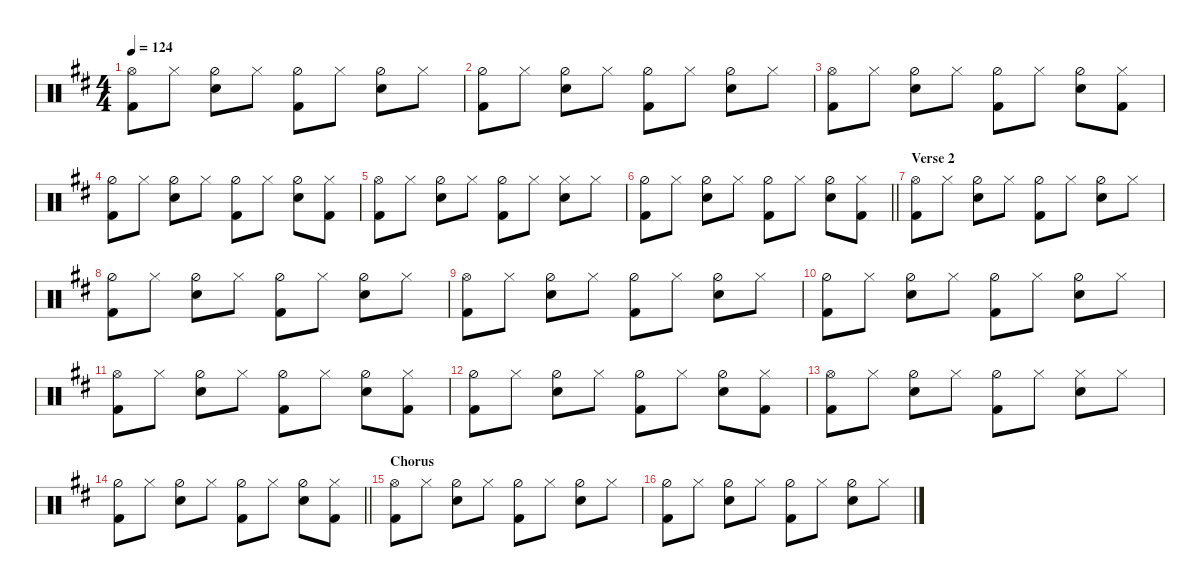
\hideDynamics
\bracketExtendMode nobrackets
\singleTrackTrackNamePolicy hidden
\multiTrackTrackNamePolicy hidden
\otherSystemsTrackNameOrientation horizontal
\track ("Drumkit" "Drums") {instrument percussion}
\staff {score}
\articulation defaults
\ts (4 4)
\tempo 124
\clef neutral
\ks bminor
("Kick (hit) 2"{acc forcenatural} "Hi-Hat (open)"{acc forcenatural}).8{dy f beam Down} "Hi-Hat (closed)"{acc forcenatural}.8{beam Down} ("Hi-Hat (half)"{acc forcenatural} "Snare (hit) 2"{acc forcenatural}).8{beam Down} "Hi-Hat (closed)"{acc forcenatural}.8{beam Down} ("Hi-Hat (half)"{acc forcenatural} "Kick (hit) 2"{acc forcenatural}).8{beam Down} "Hi-Hat (closed)"{acc forcenatural}.8{beam Down} ("Hi-Hat (half)"{acc forcenatural} "Snare (hit) 2"{acc forcenatural}).8{beam Down} "Hi-Hat (closed)"{acc forcenatural}.8{beam Down} |
("Kick (hit) 2"{acc forcenatural} "Hi-Hat (half)"{acc forcenatural}).8{beam Down} "Hi-Hat (closed)"{acc forcenatural}.8{beam Down} ("Hi-Hat (half)"{acc forcenatural} "Snare (hit) 2"{acc forcenatural}).8{beam Down} "Hi-Hat (closed)"{acc forcenatural}.8{beam Down} ("Hi-Hat (half)"{acc forcenatural} "Kick (hit) 2"{acc forcenatural}).8{beam Down} "Hi-Hat (closed)"{acc forcenatural}.8{beam Down} ("Hi-Hat (half)"{acc forcenatural} "Snare (hit) 2"{acc forcenatural}).8{beam Down} "Hi-Hat (closed)"{acc forcenatural}.8{beam Down} |
("Kick (hit) 2"{acc forcenatural} "Hi-Hat (open)"{acc forcenatural}).8{beam Down} "Hi-Hat (closed)"{acc forcenatural}.8{beam Down} ("Hi-Hat (half)"{acc forcenatural} "Snare (hit) 2"{acc forcenatural}).8{beam Down} "Hi-Hat (closed)"{acc forcenatural}.8{beam Down} ("Hi-Hat (half)"{acc forcenatural} "Kick (hit) 2"{acc forcenatural}).8{beam Down} "Hi-Hat (closed)"{acc forcenatural}.8{beam Down} ("Hi-Hat (half)"{acc forcenatural} "Snare (hit) 2"{acc forcenatural}).8{beam Down} ("Hi-Hat (closed)"{acc forcenatural} "Kick (hit) 2"{acc forcenatural}).8{beam Down} |
("Kick (hit) 2"{acc forcenatural} "Hi-Hat (half)"{acc forcenatural}).8{beam Down} "Hi-Hat (closed)"{acc forcenatural}.8{beam Down} ("Hi-Hat (half)"{acc forcenatural} "Snare (hit) 2"{acc forcenatural}).8{beam Down} "Hi-Hat (closed)"{acc forcenatural}.8{beam Down} ("Hi-Hat (half)"{acc forcenatural} "Kick (hit) 2"{acc forcenatural}).8{beam Down} "Hi-Hat (closed)"{acc forcenatural}.8{beam Down} ("Hi-Hat (half)"{acc forcenatural} "Snare (hit) 2"{acc forcenatural}).8{beam Down} ("Hi-Hat (closed)"{acc forcenatural} "Kick (hit) 2"{acc forcenatural}).8{beam Down} |
("Kick (hit) 2"{acc forcenatural} "Hi-Hat (open)"{acc forcenatural}).8{beam Down} "Hi-Hat (closed)"{acc forcenatural}.8{beam Down} ("Hi-Hat (half)"{acc forcenatural} "Snare (hit) 2"{acc forcenatural}).8{beam Down} "Hi-Hat (closed)"{acc forcenatural}.8{beam Down} ("Hi-Hat (half)"{acc forcenatural} "Kick (hit) 2"{acc forcenatural}).8{beam Down} "Hi-Hat (closed)"{acc forcenatural}.8{beam Down} ("Hi-Hat (closed)"{acc forcenatural} "Snare (hit) 2"{acc forcenatural}).8{beam Down} "Hi-Hat (closed)"{acc forcenatural}.8{beam Down} |
\barLineRight lightlight
("Kick (hit) 2"{acc forcenatural} "Hi-Hat (half)"{acc forcenatural}).8{beam Down} "Hi-Hat (closed)"{acc forcenatural}.8{beam Down} ("Hi-Hat (half)"{acc forcenatural} "Snare (hit) 2"{acc forcenatural}).8{beam Down} "Hi-Hat (closed)"{acc forcenatural}.8{beam Down} ("Hi-Hat (half)"{acc forcenatural} "Kick (hit) 2"{acc forcenatural}).8{beam Down} "Hi-Hat (closed)"{acc forcenatural}.8{beam Down} ("Hi-Hat (half)"{acc forcenatural} "Snare (hit) 2"{acc forcenatural}).8{beam Down} ("Hi-Hat (closed)"{acc forcenatural} "Kick (hit) 2"{acc forcenatural}).8{beam Down} |
\section ("" "Verse 2")
("Kick (hit) 2"{acc forcenatural} "Hi-Hat (open)"{acc forcenatural}).8{beam Down} "Hi-Hat (closed)"{acc forcenatural}.8{beam Down} ("Hi-Hat (half)"{acc forcenatural} "Snare (hit) 2"{acc forcenatural}).8{beam Down} "Hi-Hat (closed)"{acc forcenatural}.8{beam Down} ("Hi-Hat (half)"{acc forcenatural} "Kick (hit) 2"{acc forcenatural}).8{beam Down} "Hi-Hat (closed)"{acc forcenatural}.8{beam Down} ("Hi-Hat (half)"{acc forcenatural} "Snare (hit) 2"{acc forcenatural}).8{beam Down} "Hi-Hat (closed)"{acc forcenatural}.8{beam Down} |
("Kick (hit) 2"{acc forcenatural} "Hi-Hat (half)"{acc forcenatural}).8{beam Down} "Hi-Hat (closed)"{acc forcenatural}.8{beam Down} ("Hi-Hat (half)"{acc forcenatural} "Snare (hit) 2"{acc forcenatural}).8{beam Down} "Hi-Hat (closed)"{acc forcenatural}.8{beam Down} ("Hi-Hat (half)"{acc forcenatural} "Kick (hit) 2"{acc forcenatural}).8{beam Down} "Hi-Hat (closed)"{acc forcenatural}.8{beam Down} ("Hi-Hat (half)"{acc forcenatural} "Snare (hit) 2"{acc forcenatural}).8{beam Down} "Hi-Hat (closed)"{acc forcenatural}.8{beam Down} |
("Kick (hit) 2"{acc forcenatural} "Hi-Hat (open)"{acc forcenatural}).8{beam Down} "Hi-Hat (closed)"{acc forcenatural}.8{beam Down} ("Hi-Hat (half)"{acc forcenatural} "Snare (hit) 2"{acc forcenatural}).8{beam Down} "Hi-Hat (closed)"{acc forcenatural}.8{beam Down} ("Hi-Hat (half)"{acc forcenatural} "Kick (hit) 2"{acc forcenatural}).8{beam Down} "Hi-Hat (closed)"{acc forcenatural}.8{beam Down} ("Hi-Hat (half)"{acc forcenatural} "Snare (hit) 2"{acc forcenatural}).8{beam Down} "Hi-Hat (closed)"{acc forcenatural}.8{beam Down} |
("Kick (hit) 2"{acc forcenatural} "Hi-Hat (half)"{acc forcenatural}).8{beam Down} "Hi-Hat (closed)"{acc forcenatural}.8{beam Down} ("Hi-Hat (half)"{acc forcenatural} "Snare (hit) 2"{acc forcenatural}).8{beam Down} "Hi-Hat (closed)"{acc forcenatural}.8{beam Down} ("Hi-Hat (half)"{acc forcenatural} "Kick (hit) 2"{acc forcenatural}).8{beam Down} "Hi-Hat (closed)"{acc forcenatural}.8{beam Down} ("Hi-Hat (half)"{acc forcenatural} "Snare (hit) 2"{acc forcenatural}).8{beam Down} "Hi-Hat (closed)"{acc forcenatural}.8{beam Down} |
("Kick (hit) 2"{acc forcenatural} "Hi-Hat (open)"{acc forcenatural}).8{beam Down} "Hi-Hat (closed)"{acc forcenatural}.8{beam Down} ("Hi-Hat (half)"{acc forcenatural} "Snare (hit) 2"{acc forcenatural}).8{beam Down} "Hi-Hat (closed)"{acc forcenatural}.8{beam Down} ("Hi-Hat (half)"{acc forcenatural} "Kick (hit) 2"{acc forcenatural}).8{beam Down} "Hi-Hat (closed)"{acc forcenatural}.8{beam Down} ("Hi-Hat (half)"{acc forcenatural} "Snare (hit) 2"{acc forcenatural}).8{beam Down} ("Hi-Hat (closed)"{acc forcenatural} "Kick (hit) 2"{acc forcenatural}).8{beam Down} |
("Kick (hit) 2"{acc forcenatural} "Hi-Hat (half)"{acc forcenatural}).8{beam Down} "Hi-Hat (closed)"{acc forcenatural}.8{beam Down} ("Hi-Hat (half)"{acc forcenatural} "Snare (hit) 2"{acc forcenatural}).8{beam Down} "Hi-Hat (closed)"{acc forcenatural}.8{beam Down} ("Hi-Hat (half)"{acc forcenatural} "Kick (hit) 2"{acc forcenatural}).8{beam Down} "Hi-Hat (closed)"{acc forcenatural}.8{beam Down} ("Hi-Hat (half)"{acc forcenatural} "Snare (hit) 2"{acc forcenatural}).8{beam Down} ("Hi-Hat (closed)"{acc forcenatural} "Kick (hit) 2"{acc forcenatural}).8{beam Down} |
("Kick (hit) 2"{acc forcenatural} "Hi-Hat (open)"{acc forcenatural}).8{beam Down} "Hi-Hat (closed)"{acc forcenatural}.8{beam Down} ("Hi-Hat (half)"{acc forcenatural} "Snare (hit) 2"{acc forcenatural}).8{beam Down} "Hi-Hat (closed)"{acc forcenatural}.8{beam Down} ("Hi-Hat (half)"{acc forcenatural} "Kick (hit) 2"{acc forcenatural}).8{beam Down} "Hi-Hat (closed)"{acc forcenatural}.8{beam Down} ("Hi-Hat (closed)"{acc forcenatural} "Snare (hit) 2"{acc forcenatural}).8{beam Down} "Hi-Hat (closed)"{acc forcenatural}.8{beam Down} |
\barLineRight lightlight
("Kick (hit) 2"{acc forcenatural} "Hi-Hat (half)"{acc forcenatural}).8{beam Down} "Hi-Hat (closed)"{acc forcenatural}.8{beam Down} ("Hi-Hat (half)"{acc forcenatural} "Snare (hit) 2"{acc forcenatural}).8{beam Down} "Hi-Hat (closed)"{acc forcenatural}.8{beam Down} ("Hi-Hat (half)"{acc forcenatural} "Kick (hit) 2"{acc forcenatural}).8{beam Down} "Hi-Hat (closed)"{acc forcenatural}.8{beam Down} ("Hi-Hat (half)"{acc forcenatural} "Snare (hit) 2"{acc forcenatural}).8{beam Down} ("Hi-Hat (closed)"{acc forcenatural} "Kick (hit) 2"{acc forcenatural}).8{beam Down} |
\section ("" "Chorus")
("Kick (hit) 2"{acc forcenatural} "Hi-Hat (open)"{acc forcenatural}).8{beam Down} "Hi-Hat (closed)"{acc forcenatural}.8{beam Down} ("Hi-Hat (half)"{acc forcenatural} "Snare (hit) 2"{acc forcenatural}).8{beam Down} "Hi-Hat (closed)"{acc forcenatural}.8{beam Down} ("Hi-Hat (half)"{acc forcenatural} "Kick (hit) 2"{acc forcenatural}).8{beam Down} "Hi-Hat (closed)"{acc forcenatural}.8{beam Down} ("Hi-Hat (half)"{acc forcenatural} "Snare (hit) 2"{acc forcenatural}).8{beam Down} "Hi-Hat (closed)"{acc forcenatural}.8{beam Down} |
("Kick (hit) 2"{acc forcenatural} "Hi-Hat (half)"{acc forcenatural}).8{beam Down} "Hi-Hat (closed)"{acc forcenatural}.8{beam Down} ("Hi-Hat (half)"{acc forcenatural} "Snare (hit) 2"{acc forcenatural}).8{beam Down} "Hi-Hat (closed)"{acc forcenatural}.8{beam Down} ("Hi-Hat (half)"{acc forcenatural} "Kick (hit) 2"{acc forcenatural}).8{beam Down} "Hi-Hat (closed)"{acc forcenatural}.8{beam Down} ("Hi-Hat (half)"{acc forcenatural} "Snare (hit) 2"{acc forcenatural}).8{beam Down} "Hi-Hat (closed)"{acc forcenatural}.8{beam Down}
